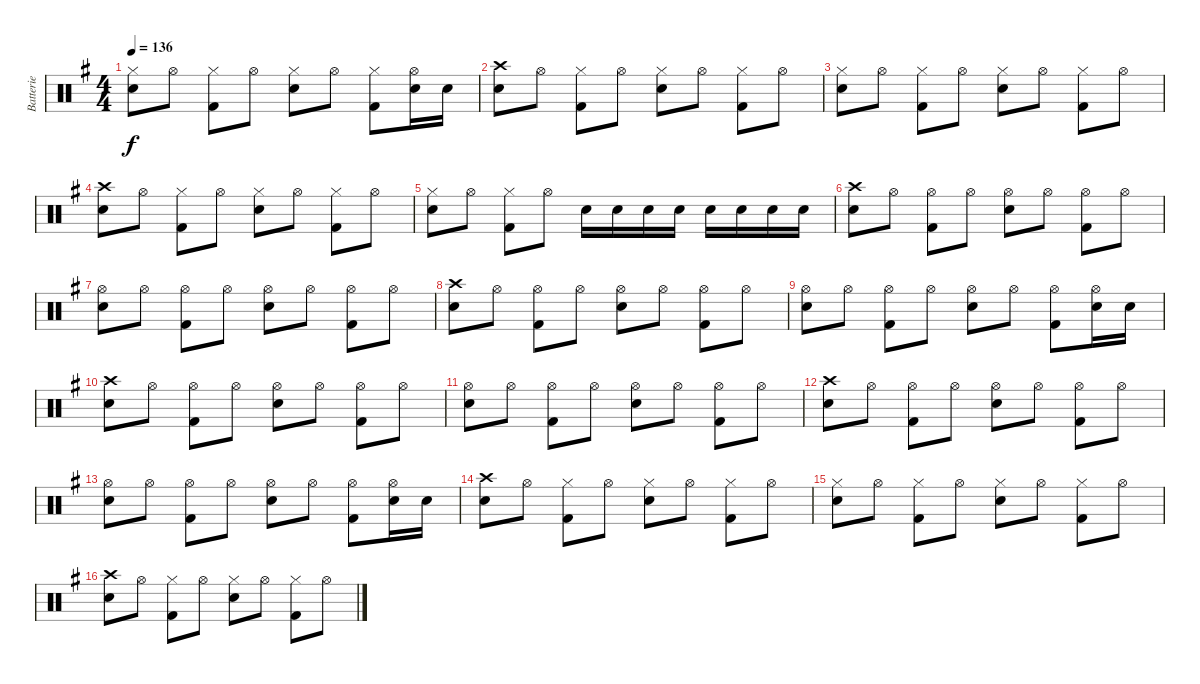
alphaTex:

\track ("Batterie" "Batterie") {instrument percussion}
\staff {score}
\articulation defaults
\ts (4 4)
\tempo 136
\clef neutral
\ks g
("Hi-Hat (closed)" "Snare (hit) 2").8{dy f} "Hi-Hat (open)".8 ("Hi-Hat (closed)" "Kick (hit) 2").8 "Hi-Hat (open)".8 ("Hi-Hat (closed)" "Snare (hit) 2").8 "Hi-Hat (open)".8 ("Hi-Hat (closed)" "Kick (hit) 2").8 ("Hi-Hat (open)" "Snare (hit) 2").16 "Snare (hit) 2".16 |
("Crash high (hit)" "Snare (hit) 2").8 "Hi-Hat (open)".8 ("Hi-Hat (closed)" "Kick (hit) 2").8 "Hi-Hat (open)".8 ("Hi-Hat (closed)" "Snare (hit) 2").8 "Hi-Hat (open)".8 ("Hi-Hat (closed)" "Kick (hit) 2").8 "Hi-Hat (open)".8 |
("Hi-Hat (closed)" "Snare (hit) 2").8 "Hi-Hat (open)".8 ("Hi-Hat (closed)" "Kick (hit) 2").8 "Hi-Hat (open)".8 ("Hi-Hat (closed)" "Snare (hit) 2").8 "Hi-Hat (open)".8 ("Hi-Hat (closed)" "Kick (hit) 2").8 "Hi-Hat (open)".8 |
("Crash high (hit)" "Snare (hit) 2").8 "Hi-Hat (open)".8 ("Hi-Hat (closed)" "Kick (hit) 2").8 "Hi-Hat (open)".8 ("Hi-Hat (closed)" "Snare (hit) 2").8 "Hi-Hat (open)".8 ("Hi-Hat (closed)" "Kick (hit) 2").8 "Hi-Hat (open)".8 |
("Hi-Hat (closed)" "Snare (hit) 2").8 "Hi-Hat (open)".8 ("Hi-Hat (closed)" "Kick (hit) 2").8 "Hi-Hat (open)".8 "Snare (hit) 2".16 "Snare (hit) 2".16 "Snare (hit) 2".16 "Snare (hit) 2".16 "Snare (hit) 2".16 "Snare (hit) 2".16 "Snare (hit) 2".16 "Snare (hit) 2".16 |
("Crash high (hit)" "Snare (hit) 2").8 "Hi-Hat (open)".8 ("Hi-Hat (open)" "Kick (hit) 2").8 "Hi-Hat (open)".8 ("Hi-Hat (open)" "Snare (hit) 2").8 "Hi-Hat (open)".8 ("Hi-Hat (open)" "Kick (hit) 2").8 "Hi-Hat (open)".8 |
("Hi-Hat (open)" "Snare (hit) 2").8 "Hi-Hat (open)".8 ("Hi-Hat (open)" "Kick (hit) 2").8 "Hi-Hat (open)".8 ("Hi-Hat (open)" "Snare (hit) 2").8 "Hi-Hat (open)".8 ("Hi-Hat (open)" "Kick (hit) 2").8 "Hi-Hat (open)".8 |
("Crash high (hit)" "Snare (hit) 2").8 "Hi-Hat (open)".8 ("Hi-Hat (open)" "Kick (hit) 2").8 "Hi-Hat (open)".8 ("Hi-Hat (open)" "Snare (hit) 2").8 "Hi-Hat (open)".8 ("Hi-Hat (open)" "Kick (hit) 2").8 "Hi-Hat (open)".8 |
("Hi-Hat (open)" "Snare (hit) 2").8 "Hi-Hat (open)".8 ("Hi-Hat (open)" "Kick (hit) 2").8 "Hi-Hat (open)".8 ("Hi-Hat (open)" "Snare (hit) 2").8 "Hi-Hat (open)".8 ("Hi-Hat (open)" "Kick (hit) 2").8 ("Hi-Hat (open)" "Snare (hit) 2").16 "Snare (hit) 2".16 |
("Crash high (hit)" "Snare (hit) 2").8 "Hi-Hat (open)".8 ("Hi-Hat (open)" "Kick (hit) 2").8 "Hi-Hat (open)".8 ("Hi-Hat (open)" "Snare (hit) 2").8 "Hi-Hat (open)".8 ("Hi-Hat (open)" "Kick (hit) 2").8 "Hi-Hat (open)".8 |
("Hi-Hat (open)" "Snare (hit) 2").8 "Hi-Hat (open)".8 ("Hi-Hat (open)" "Kick (hit) 2").8 "Hi-Hat (open)".8 ("Hi-Hat (open)" "Snare (hit) 2").8 "Hi-Hat (open)".8 ("Hi-Hat (open)" "Kick (hit) 2").8 "Hi-Hat (open)".8 |
("Crash high (hit)" "Snare (hit) 2").8 "Hi-Hat (open)".8 ("Hi-Hat (open)" "Kick (hit) 2").8 "Hi-Hat (open)".8 ("Hi-Hat (open)" "Snare (hit) 2").8 "Hi-Hat (open)".8 ("Hi-Hat (open)" "Kick (hit) 2").8 "Hi-Hat (open)".8 |
("Hi-Hat (open)" "Snare (hit) 2").8 "Hi-Hat (open)".8 ("Hi-Hat (open)" "Kick (hit) 2").8 "Hi-Hat (open)".8 ("Hi-Hat (open)" "Snare (hit) 2").8 "Hi-Hat (open)".8 ("Hi-Hat (open)" "Kick (hit) 2").8 ("Hi-Hat (open)" "Snare (hit) 2").16 "Snare (hit) 2".16 |
("Crash high (hit)" "Snare (hit) 2").8 "Hi-Hat (open)".8 ("Hi-Hat (closed)" "Kick (hit) 2").8 "Hi-Hat (open)".8 ("Hi-Hat (closed)" "Snare (hit) 2").8 "Hi-Hat (open)".8 ("Hi-Hat (closed)" "Kick (hit) 2").8 "Hi-Hat (open)".8 |
("Hi-Hat (closed)" "Snare (hit) 2").8 "Hi-Hat (open)".8 ("Hi-Hat (closed)" "Kick (hit) 2").8 "Hi-Hat (open)".8 ("Hi-Hat (closed)" "Snare (hit) 2").8 "Hi-Hat (open)".8 ("Hi-Hat (closed)" "Kick (hit) 2").8 "Hi-Hat (open)".8 |
("Crash high (hit)" "Snare (hit) 2").8 "Hi-Hat (open)".8 ("Hi-Hat (closed)" "Kick (hit) 2").8 "Hi-Hat (open)".8 ("Hi-Hat (closed)" "Snare (hit) 2").8 "Hi-Hat (open)".8 ("Hi-Hat (closed)" "Kick (hit) 2").8 "Hi-Hat (open)".8
